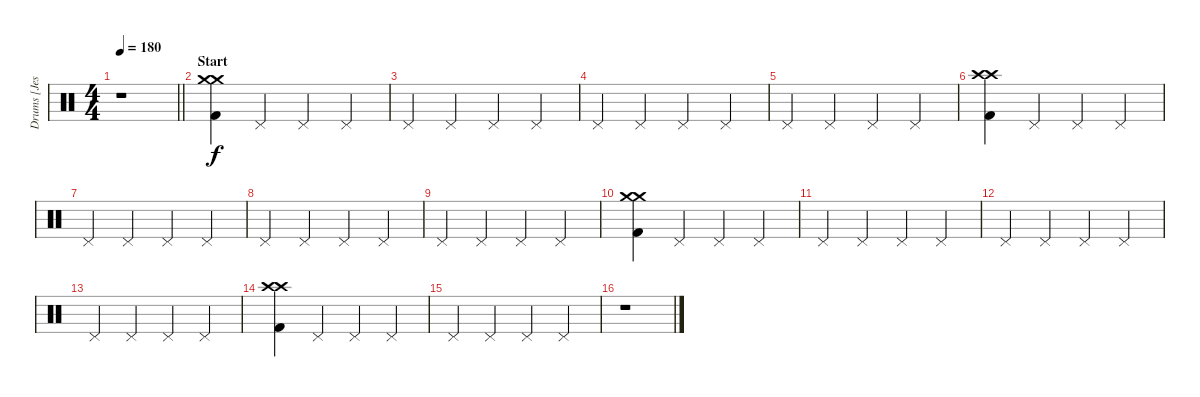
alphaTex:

\track ("Drums [Jesse Ingelevics]" "Drums [Jes") {instrument percussion}
\staff {score}
\articulation defaults
\ts (4 4)
\tempo 180
\clef neutral
\barLineRight lightlight
\ks c
r.1{dy f} |
\section ("" "Start")
("Crash medium (hit)" "Crash medium (hit)" "Kick (hit) 2").4 "Pedal Hi-Hat (hit)".4 "Pedal Hi-Hat (hit)".4 "Pedal Hi-Hat (hit)".4 |
"Pedal Hi-Hat (hit)".4 "Pedal Hi-Hat (hit)".4 "Pedal Hi-Hat (hit)".4 "Pedal Hi-Hat (hit)".4 |
"Pedal Hi-Hat (hit)".4 "Pedal Hi-Hat (hit)".4 "Pedal Hi-Hat (hit)".4 "Pedal Hi-Hat (hit)".4 |
"Pedal Hi-Hat (hit)".4 "Pedal Hi-Hat (hit)".4 "Pedal Hi-Hat (hit)".4 "Pedal Hi-Hat (hit)".4 |
("Crash high (hit)" "Crash high (hit)" "Kick (hit) 2").4 "Pedal Hi-Hat (hit)".4 "Pedal Hi-Hat (hit)".4 "Pedal Hi-Hat (hit)".4 |
"Pedal Hi-Hat (hit)".4 "Pedal Hi-Hat (hit)".4 "Pedal Hi-Hat (hit)".4 "Pedal Hi-Hat (hit)".4 |
"Pedal Hi-Hat (hit)".4 "Pedal Hi-Hat (hit)".4 "Pedal Hi-Hat (hit)".4 "Pedal Hi-Hat (hit)".4 |
"Pedal Hi-Hat (hit)".4 "Pedal Hi-Hat (hit)".4 "Pedal Hi-Hat (hit)".4 "Pedal Hi-Hat (hit)".4 |
("Crash medium (hit)" "Crash medium (hit)" "Kick (hit) 2").4 "Pedal Hi-Hat (hit)".4 "Pedal Hi-Hat (hit)".4 "Pedal Hi-Hat (hit)".4 |
"Pedal Hi-Hat (hit)".4 "Pedal Hi-Hat (hit)".4 "Pedal Hi-Hat (hit)".4 "Pedal Hi-Hat (hit)".4 |
"Pedal Hi-Hat (hit)".4 "Pedal Hi-Hat (hit)".4 "Pedal Hi-Hat (hit)".4 "Pedal Hi-Hat (hit)".4 |
"Pedal Hi-Hat (hit)".4 "Pedal Hi-Hat (hit)".4 "Pedal Hi-Hat (hit)".4 "Pedal Hi-Hat (hit)".4 |
("Crash high (hit)" "Crash high (hit)" "Kick (hit) 2").4 "Pedal Hi-Hat (hit)".4 "Pedal Hi-Hat (hit)".4 "Pedal Hi-Hat (hit)".4 |
"Pedal Hi-Hat (hit)".4 "Pedal Hi-Hat (hit)".4 "Pedal Hi-Hat (hit)".4 "Pedal Hi-Hat (hit)".4 |
r.1
